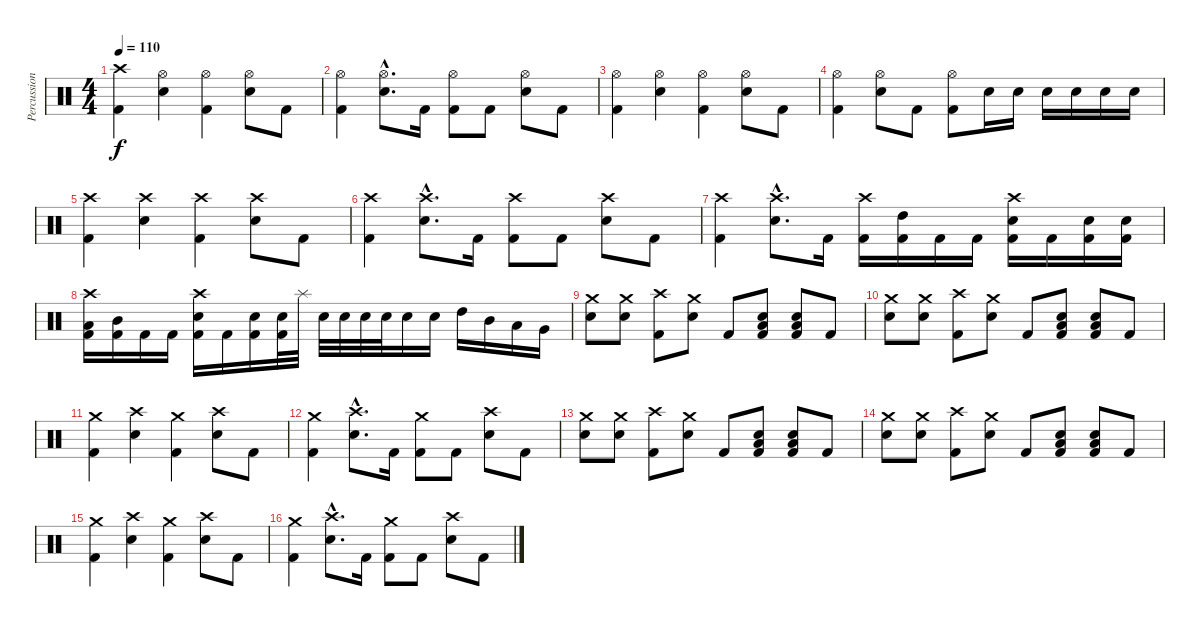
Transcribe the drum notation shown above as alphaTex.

\track ("Percussion" "Percussion") {instrument percussion}
\staff {score}
\articulation defaults
\ts (4 4)
\tempo 110
\clef neutral
\ks c
("Crash high (hit)" "Kick (hit) 2").4{dy f} ("Hi-Hat (open)" "Electric Snare (hit)").4 ("Hi-Hat (open)" "Kick (hit) 2").4 ("Hi-Hat (open)" "Electric Snare (hit)").8 "Kick (hit) 2".8 |
("Hi-Hat (open)" "Kick (hit) 2").4 ("Hi-Hat (open)"{hac} "Electric Snare (hit)"{hac}).8{d} "Kick (hit) 2".16 ("Hi-Hat (open)" "Kick (hit) 2").8 "Kick (hit) 2".8 ("Hi-Hat (open)" "Electric Snare (hit)").8 "Kick (hit) 2".8 |
("Hi-Hat (open)" "Kick (hit) 2").4 ("Hi-Hat (open)" "Electric Snare (hit)").4 ("Hi-Hat (open)" "Kick (hit) 2").4 ("Hi-Hat (open)" "Electric Snare (hit)").8 "Kick (hit) 2".8 |
("Hi-Hat (open)" "Kick (hit) 2").4 ("Hi-Hat (open)" "Electric Snare (hit)").8 "Kick (hit) 2".8 ("Hi-Hat (open)" "Kick (hit) 2").8 "Electric Snare (hit)".16 "Electric Snare (hit)".16 "Electric Snare (hit)".16 "Electric Snare (hit)".16 "Electric Snare (hit)".16 "Electric Snare (hit)".16 |
("Crash high (hit)" "Kick (hit) 2").4 ("Crash high (hit)" "Electric Snare (hit)").4 ("Crash high (hit)" "Kick (hit) 2").4 ("Crash high (hit)" "Electric Snare (hit)").8 "Kick (hit) 2".8 |
("Crash high (hit)" "Kick (hit) 2").4 ("Crash high (hit)"{hac} "Electric Snare (hit)"{hac}).8{d} "Kick (hit) 2".16 ("Crash high (hit)" "Kick (hit) 2").8 "Kick (hit) 2".8 ("Crash high (hit)" "Electric Snare (hit)").8 "Kick (hit) 2".8 |
("Crash high (hit)" "Kick (hit) 2").4 ("Crash high (hit)"{hac} "Electric Snare (hit)"{hac}).8{d} "Kick (hit) 2".16 ("Crash high (hit)" "Kick (hit) 2").16 ("High Tom (hit)" "Kick (hit) 2").16 "Kick (hit) 2".16 "Kick (hit) 2".16 ("Crash high (hit)" "Electric Snare (hit)" "Kick (hit) 2").16 "Kick (hit) 2".16 ("Electric Snare (hit)" "Kick (hit) 2").16 ("Electric Snare (hit)" "Kick (hit) 2").16 |
("Crash high (hit)" "Low Tom (hit)" "Kick (hit) 2").16 ("Mid Tom (hit)" "Kick (hit) 2").16 "Kick (hit) 2".16 "Kick (hit) 2".16 ("Crash high (hit)" "Electric Snare (hit)" "Kick (hit) 2").16 "Kick (hit) 2".16 ("Electric Snare (hit)" "Kick (hit) 2").16 ("Electric Snare (hit)" "Kick (hit) 2").32 "Splash (hit)".32 "Electric Snare (hit)".32 "Electric Snare (hit)".32 "Electric Snare (hit)".32 "Electric Snare (hit)".32 "Electric Snare (hit)".16 "Electric Snare (hit)".16 "High Tom (hit)".16 "Mid Tom (hit)".16 "Low Tom (hit)".16 "Very Low Tom (hit)".16 |
("Crash medium (hit)" "Electric Snare (hit)").8 ("Crash medium (hit)" "Electric Snare (hit)").8 ("Crash high (hit)" "Kick (hit) 2").8 ("Crash medium (hit)" "Electric Snare (hit)").8 "Kick (hit) 2".8 ("Electric Snare (hit)" "Low Floor Tom (hit)" "Kick (hit) 2").8 ("Electric Snare (hit)" "Low Floor Tom (hit)" "Kick (hit) 2").8 "Kick (hit) 2".8 |
("Crash medium (hit)" "Electric Snare (hit)").8 ("Crash medium (hit)" "Electric Snare (hit)").8 ("Crash high (hit)" "Kick (hit) 2").8 ("Crash medium (hit)" "Electric Snare (hit)").8 "Kick (hit) 2".8 ("Electric Snare (hit)" "Low Floor Tom (hit)" "Kick (hit) 2").8 ("Electric Snare (hit)" "Low Floor Tom (hit)" "Kick (hit) 2").8 "Kick (hit) 2".8 |
("Crash medium (hit)" "Kick (hit) 2").4 ("Crash high (hit)" "Electric Snare (hit)").4 ("Crash medium (hit)" "Kick (hit) 2").4 ("Crash high (hit)" "Electric Snare (hit)").8 "Kick (hit) 2".8 |
("Crash medium (hit)" "Kick (hit) 2").4 ("Crash high (hit)"{hac} "Electric Snare (hit)"{hac}).8{d} "Kick (hit) 2".16 ("Crash medium (hit)" "Kick (hit) 2").8 "Kick (hit) 2".8 ("Crash high (hit)" "Electric Snare (hit)").8 "Kick (hit) 2".8 |
("Crash medium (hit)" "Electric Snare (hit)").8 ("Crash medium (hit)" "Electric Snare (hit)").8 ("Crash high (hit)" "Kick (hit) 2").8 ("Crash medium (hit)" "Electric Snare (hit)").8 "Kick (hit) 2".8 ("Electric Snare (hit)" "Low Floor Tom (hit)" "Kick (hit) 2").8 ("Electric Snare (hit)" "Low Floor Tom (hit)" "Kick (hit) 2").8 "Kick (hit) 2".8 |
("Crash medium (hit)" "Electric Snare (hit)").8 ("Crash medium (hit)" "Electric Snare (hit)").8 ("Crash high (hit)" "Kick (hit) 2").8 ("Crash medium (hit)" "Electric Snare (hit)").8 "Kick (hit) 2".8 ("Electric Snare (hit)" "Low Floor Tom (hit)" "Kick (hit) 2").8 ("Electric Snare (hit)" "Low Floor Tom (hit)" "Kick (hit) 2").8 "Kick (hit) 2".8 |
("Crash medium (hit)" "Kick (hit) 2").4 ("Crash high (hit)" "Electric Snare (hit)").4 ("Crash medium (hit)" "Kick (hit) 2").4 ("Crash high (hit)" "Electric Snare (hit)").8 "Kick (hit) 2".8 |
("Crash medium (hit)" "Kick (hit) 2").4 ("Crash high (hit)"{hac} "Electric Snare (hit)"{hac}).8{d} "Kick (hit) 2".16 ("Crash medium (hit)" "Kick (hit) 2").8 "Kick (hit) 2".8 ("Crash high (hit)" "Electric Snare (hit)").8 "Kick (hit) 2".8
